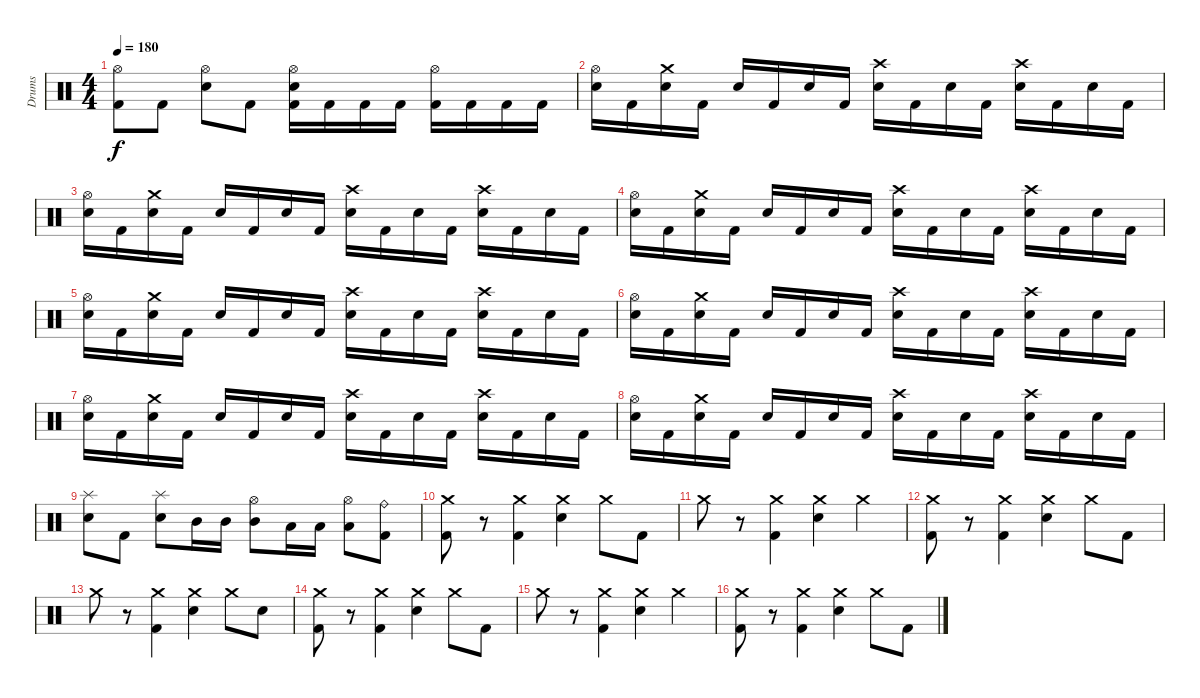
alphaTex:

\track ("Drums" "Drums") {instrument percussion}
\staff {score}
\articulation defaults
\ts (4 4)
\tempo 180
\clef neutral
\ks c
("Hi-Hat (open)" "Kick (hit) 2").8{dy f} "Kick (hit) 2".8 ("Hi-Hat (open)" "Electric Snare (hit)").8 "Kick (hit) 2".8 ("Hi-Hat (open)" "Electric Snare (hit)" "Kick (hit) 2").16 "Kick (hit) 2".16 "Kick (hit) 2".16 "Kick (hit) 2".16 ("Hi-Hat (open)" "Kick (hit) 2").16 "Kick (hit) 2".16 "Kick (hit) 2".16 "Kick (hit) 2".16 |
("Hi-Hat (open)" "Electric Snare (hit)").16 "Kick (hit) 2".16 ("Crash medium (hit)" "Electric Snare (hit)").16 "Kick (hit) 2".16 "Electric Snare (hit)".16 "Kick (hit) 2".16 "Electric Snare (hit)".16 "Kick (hit) 2".16 ("Crash high (hit)" "Electric Snare (hit)").16 "Kick (hit) 2".16 "Electric Snare (hit)".16 "Kick (hit) 2".16 ("Crash high (hit)" "Electric Snare (hit)").16 "Kick (hit) 2".16 "Electric Snare (hit)".16 "Kick (hit) 2".16 |
("Hi-Hat (open)" "Electric Snare (hit)").16 "Kick (hit) 2".16 ("Crash medium (hit)" "Electric Snare (hit)").16 "Kick (hit) 2".16 "Electric Snare (hit)".16 "Kick (hit) 2".16 "Electric Snare (hit)".16 "Kick (hit) 2".16 ("Crash high (hit)" "Electric Snare (hit)").16 "Kick (hit) 2".16 "Electric Snare (hit)".16 "Kick (hit) 2".16 ("Crash high (hit)" "Electric Snare (hit)").16 "Kick (hit) 2".16 "Electric Snare (hit)".16 "Kick (hit) 2".16 |
("Hi-Hat (open)" "Electric Snare (hit)").16 "Kick (hit) 2".16 ("Crash medium (hit)" "Electric Snare (hit)").16 "Kick (hit) 2".16 "Electric Snare (hit)".16 "Kick (hit) 2".16 "Electric Snare (hit)".16 "Kick (hit) 2".16 ("Crash high (hit)" "Electric Snare (hit)").16 "Kick (hit) 2".16 "Electric Snare (hit)".16 "Kick (hit) 2".16 ("Crash high (hit)" "Electric Snare (hit)").16 "Kick (hit) 2".16 "Electric Snare (hit)".16 "Kick (hit) 2".16 |
("Hi-Hat (open)" "Electric Snare (hit)").16 "Kick (hit) 2".16 ("Crash medium (hit)" "Electric Snare (hit)").16 "Kick (hit) 2".16 "Electric Snare (hit)".16 "Kick (hit) 2".16 "Electric Snare (hit)".16 "Kick (hit) 2".16 ("Crash high (hit)" "Electric Snare (hit)").16 "Kick (hit) 2".16 "Electric Snare (hit)".16 "Kick (hit) 2".16 ("Crash high (hit)" "Electric Snare (hit)").16 "Kick (hit) 2".16 "Electric Snare (hit)".16 "Kick (hit) 2".16 |
("Hi-Hat (open)" "Electric Snare (hit)").16 "Kick (hit) 2".16 ("Crash medium (hit)" "Electric Snare (hit)").16 "Kick (hit) 2".16 "Electric Snare (hit)".16 "Kick (hit) 2".16 "Electric Snare (hit)".16 "Kick (hit) 2".16 ("Crash high (hit)" "Electric Snare (hit)").16 "Kick (hit) 2".16 "Electric Snare (hit)".16 "Kick (hit) 2".16 ("Crash high (hit)" "Electric Snare (hit)").16 "Kick (hit) 2".16 "Electric Snare (hit)".16 "Kick (hit) 2".16 |
("Hi-Hat (open)" "Electric Snare (hit)").16 "Kick (hit) 2".16 ("Crash medium (hit)" "Electric Snare (hit)").16 "Kick (hit) 2".16 "Electric Snare (hit)".16 "Kick (hit) 2".16 "Electric Snare (hit)".16 "Kick (hit) 2".16 ("Crash high (hit)" "Electric Snare (hit)").16 "Kick (hit) 2".16 "Electric Snare (hit)".16 "Kick (hit) 2".16 ("Crash high (hit)" "Electric Snare (hit)").16 "Kick (hit) 2".16 "Electric Snare (hit)".16 "Kick (hit) 2".16 |
("Hi-Hat (open)" "Electric Snare (hit)").16 "Kick (hit) 2".16 ("Crash medium (hit)" "Electric Snare (hit)").16 "Kick (hit) 2".16 "Electric Snare (hit)".16 "Kick (hit) 2".16 "Electric Snare (hit)".16 "Kick (hit) 2".16 ("Crash high (hit)" "Electric Snare (hit)").16 "Kick (hit) 2".16 "Electric Snare (hit)".16 "Kick (hit) 2".16 ("Crash high (hit)" "Electric Snare (hit)").16 "Kick (hit) 2".16 "Electric Snare (hit)".16 "Kick (hit) 2".16 |
("Splash (hit)" "Electric Snare (hit)").8 "Kick (hit) 2".8 ("Splash (hit)" "Electric Snare (hit)").8 "Mid Tom (hit)".16 "Mid Tom (hit)".16 ("Hi-Hat (open)" "Mid Tom (hit)").8 "Low Tom (hit)".16 "Low Tom (hit)".16 ("Hi-Hat (open)" "Low Tom (hit)").8 ("Ride (bell)" "Kick (hit) 2").8 |
("Crash medium (hit)" "Kick (hit) 2").8 r.8 ("Crash medium (hit)" "Kick (hit) 2").4 ("Crash medium (hit)" "Electric Snare (hit)").4 "Crash medium (hit)".8 "Kick (hit) 2".8 |
"Crash medium (hit)".8 r.8 ("Crash medium (hit)" "Kick (hit) 2").4 ("Crash medium (hit)" "Electric Snare (hit)").4 "Crash medium (hit)".4 |
("Crash medium (hit)" "Kick (hit) 2").8 r.8 ("Crash medium (hit)" "Kick (hit) 2").4 ("Crash medium (hit)" "Electric Snare (hit)").4 "Crash medium (hit)".8 "Kick (hit) 2".8 |
"Crash medium (hit)".8 r.8 ("Crash medium (hit)" "Kick (hit) 2").4 ("Crash medium (hit)" "Electric Snare (hit)").4 "Crash medium (hit)".8 "Electric Snare (hit)".8 |
("Crash medium (hit)" "Kick (hit) 2").8 r.8 ("Crash medium (hit)" "Kick (hit) 2").4 ("Crash medium (hit)" "Electric Snare (hit)").4 "Crash medium (hit)".8 "Kick (hit) 2".8 |
"Crash medium (hit)".8 r.8 ("Crash medium (hit)" "Kick (hit) 2").4 ("Crash medium (hit)" "Electric Snare (hit)").4 "Crash medium (hit)".4 |
("Crash medium (hit)" "Kick (hit) 2").8 r.8 ("Crash medium (hit)" "Kick (hit) 2").4 ("Crash medium (hit)" "Electric Snare (hit)").4 "Crash medium (hit)".8 "Kick (hit) 2".8
